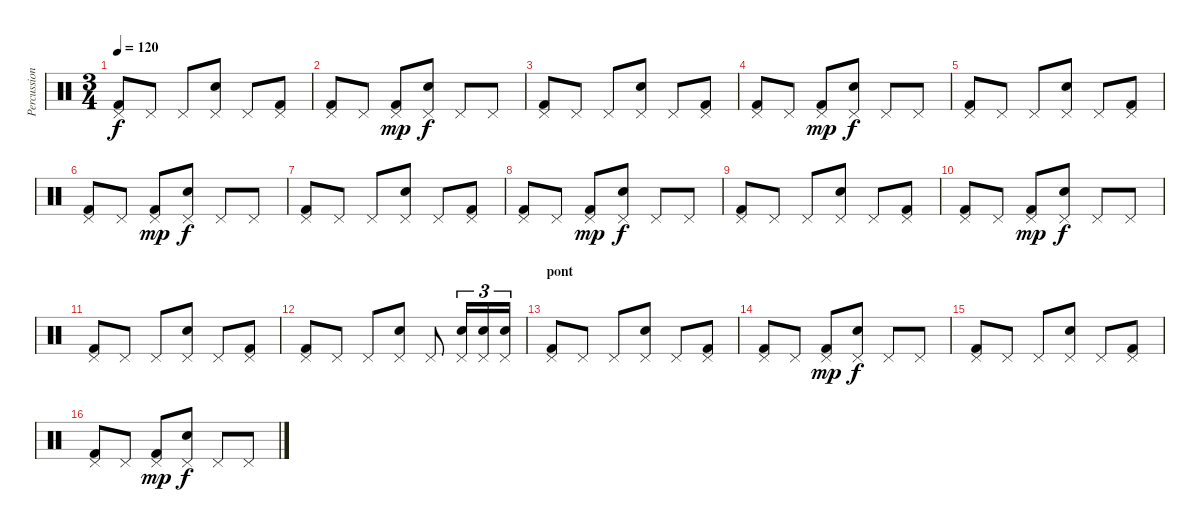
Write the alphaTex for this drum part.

\track ("Percussions" "Percussion") {instrument percussion}
\staff {score}
\articulation defaults
\ts (3 4)
\tempo 120
\clef neutral
\ks c
("Pedal Hi-Hat (hit)" "Kick (hit) 2").8{dy f} "Pedal Hi-Hat (hit)".8 "Pedal Hi-Hat (hit)".8 ("Pedal Hi-Hat (hit)" "Electric Snare (hit)").8 "Pedal Hi-Hat (hit)".8 ("Pedal Hi-Hat (hit)" "Kick (hit) 2").8 |
("Pedal Hi-Hat (hit)" "Kick (hit) 2").8 "Pedal Hi-Hat (hit)".8 ("Pedal Hi-Hat (hit)" "Kick (hit) 2").8{dy mp} ("Pedal Hi-Hat (hit)" "Electric Snare (hit)").8{dy f} "Pedal Hi-Hat (hit)".8 "Pedal Hi-Hat (hit)".8 |
("Pedal Hi-Hat (hit)" "Kick (hit) 2").8 "Pedal Hi-Hat (hit)".8 "Pedal Hi-Hat (hit)".8 ("Pedal Hi-Hat (hit)" "Electric Snare (hit)").8 "Pedal Hi-Hat (hit)".8 ("Pedal Hi-Hat (hit)" "Kick (hit) 2").8 |
("Pedal Hi-Hat (hit)" "Kick (hit) 2").8 "Pedal Hi-Hat (hit)".8 ("Pedal Hi-Hat (hit)" "Kick (hit) 2").8{dy mp} ("Pedal Hi-Hat (hit)" "Electric Snare (hit)").8{dy f} "Pedal Hi-Hat (hit)".8 "Pedal Hi-Hat (hit)".8 |
("Pedal Hi-Hat (hit)" "Kick (hit) 2").8 "Pedal Hi-Hat (hit)".8 "Pedal Hi-Hat (hit)".8 ("Pedal Hi-Hat (hit)" "Electric Snare (hit)").8 "Pedal Hi-Hat (hit)".8 ("Pedal Hi-Hat (hit)" "Kick (hit) 2").8 |
("Pedal Hi-Hat (hit)" "Kick (hit) 2").8 "Pedal Hi-Hat (hit)".8 ("Pedal Hi-Hat (hit)" "Kick (hit) 2").8{dy mp} ("Pedal Hi-Hat (hit)" "Electric Snare (hit)").8{dy f} "Pedal Hi-Hat (hit)".8 "Pedal Hi-Hat (hit)".8 |
("Pedal Hi-Hat (hit)" "Kick (hit) 2").8 "Pedal Hi-Hat (hit)".8 "Pedal Hi-Hat (hit)".8 ("Pedal Hi-Hat (hit)" "Electric Snare (hit)").8 "Pedal Hi-Hat (hit)".8 ("Pedal Hi-Hat (hit)" "Kick (hit) 2").8 |
("Pedal Hi-Hat (hit)" "Kick (hit) 2").8 "Pedal Hi-Hat (hit)".8 ("Pedal Hi-Hat (hit)" "Kick (hit) 2").8{dy mp} ("Pedal Hi-Hat (hit)" "Electric Snare (hit)").8{dy f} "Pedal Hi-Hat (hit)".8 "Pedal Hi-Hat (hit)".8 |
("Pedal Hi-Hat (hit)" "Kick (hit) 2").8 "Pedal Hi-Hat (hit)".8 "Pedal Hi-Hat (hit)".8 ("Pedal Hi-Hat (hit)" "Electric Snare (hit)").8 "Pedal Hi-Hat (hit)".8 ("Pedal Hi-Hat (hit)" "Kick (hit) 2").8 |
("Pedal Hi-Hat (hit)" "Kick (hit) 2").8 "Pedal Hi-Hat (hit)".8 ("Pedal Hi-Hat (hit)" "Kick (hit) 2").8{dy mp} ("Pedal Hi-Hat (hit)" "Electric Snare (hit)").8{dy f} "Pedal Hi-Hat (hit)".8 "Pedal Hi-Hat (hit)".8 |
("Pedal Hi-Hat (hit)" "Kick (hit) 2").8 "Pedal Hi-Hat (hit)".8 "Pedal Hi-Hat (hit)".8 ("Pedal Hi-Hat (hit)" "Electric Snare (hit)").8 "Pedal Hi-Hat (hit)".8 ("Pedal Hi-Hat (hit)" "Kick (hit) 2").8 |
("Pedal Hi-Hat (hit)" "Kick (hit) 2").8 "Pedal Hi-Hat (hit)".8 "Pedal Hi-Hat (hit)".8 ("Pedal Hi-Hat (hit)" "Electric Snare (hit)").8 "Pedal Hi-Hat (hit)".8 ("Pedal Hi-Hat (hit)" "Electric Snare (hit)").16{tu (3 2)} ("Pedal Hi-Hat (hit)" "Electric Snare (hit)").16{tu (3 2)} ("Pedal Hi-Hat (hit)" "Electric Snare (hit)").16{tu (3 2)} |
\section ("" "pont ")
("Pedal Hi-Hat (hit)" "Kick (hit) 2").8 "Pedal Hi-Hat (hit)".8 "Pedal Hi-Hat (hit)".8 ("Pedal Hi-Hat (hit)" "Electric Snare (hit)").8 "Pedal Hi-Hat (hit)".8 ("Pedal Hi-Hat (hit)" "Kick (hit) 2").8 |
("Pedal Hi-Hat (hit)" "Kick (hit) 2").8 "Pedal Hi-Hat (hit)".8 ("Pedal Hi-Hat (hit)" "Kick (hit) 2").8{dy mp} ("Pedal Hi-Hat (hit)" "Electric Snare (hit)").8{dy f} "Pedal Hi-Hat (hit)".8 "Pedal Hi-Hat (hit)".8 |
("Pedal Hi-Hat (hit)" "Kick (hit) 2").8 "Pedal Hi-Hat (hit)".8 "Pedal Hi-Hat (hit)".8 ("Pedal Hi-Hat (hit)" "Electric Snare (hit)").8 "Pedal Hi-Hat (hit)".8 ("Pedal Hi-Hat (hit)" "Kick (hit) 2").8 |
("Pedal Hi-Hat (hit)" "Kick (hit) 2").8 "Pedal Hi-Hat (hit)".8 ("Pedal Hi-Hat (hit)" "Kick (hit) 2").8{dy mp} ("Pedal Hi-Hat (hit)" "Electric Snare (hit)").8{dy f} "Pedal Hi-Hat (hit)".8 "Pedal Hi-Hat (hit)".8
